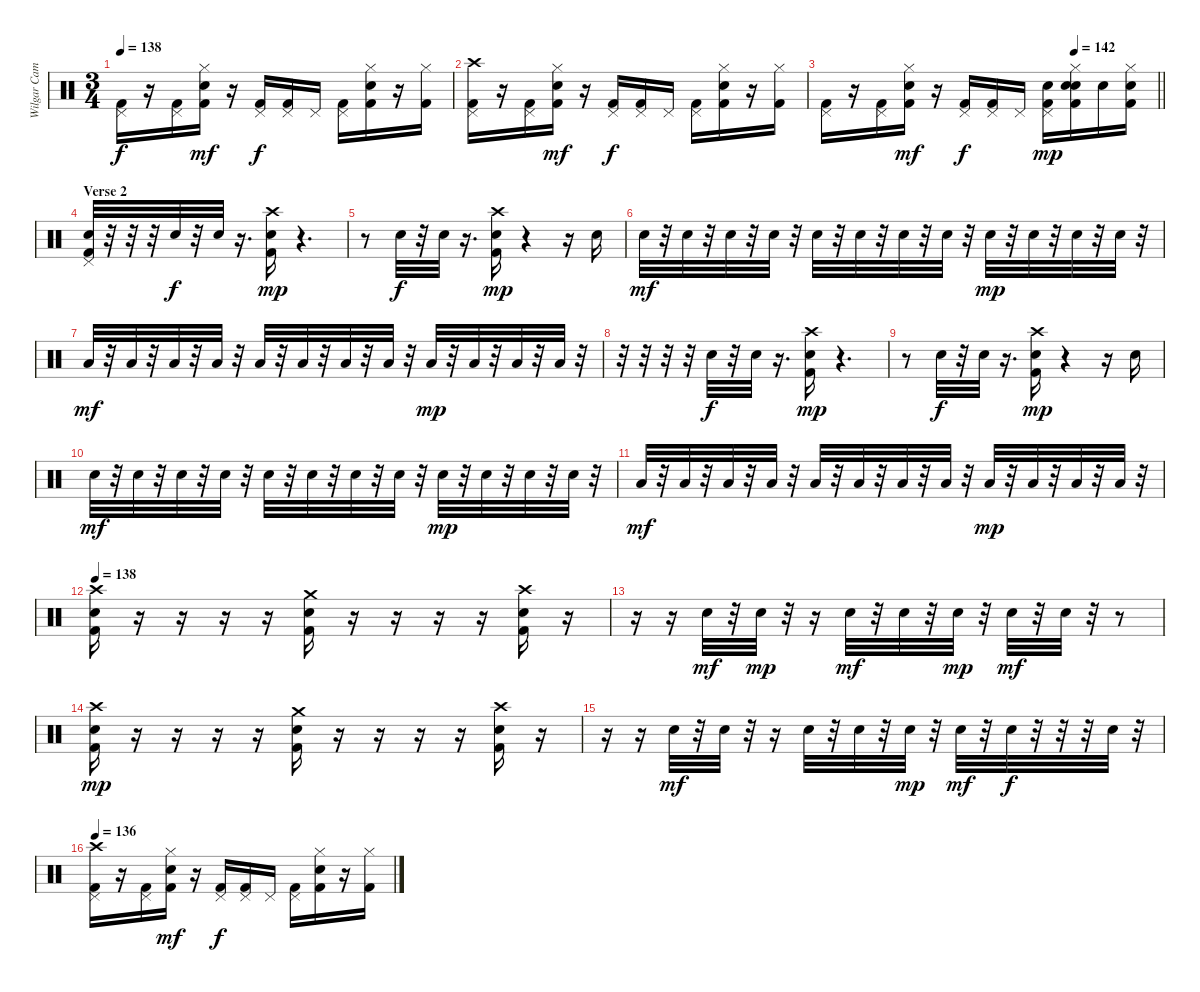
\track ("Wilgar Campbell" "Wilgar Cam") {instrument percussion}
\staff {score}
\articulation defaults
\ts (3 4)
\tempo 138
\clef neutral
\ks c
("Pedal Hi-Hat (hit)" "Kick (hit) 2").16{dy f} r.16 ("Pedal Hi-Hat (hit)" "Kick (hit) 2").16 ("Snare (hit) 2" "Hi-Hat (closed)" "Kick (hit) 2").16{dy mf} r.16 ("Pedal Hi-Hat (hit)" "Kick (hit) 2").16{dy f} ("Pedal Hi-Hat (hit)" "Kick (hit) 2").16 "Pedal Hi-Hat (hit)".16 ("Pedal Hi-Hat (hit)" "Kick (hit) 2").16 ("Snare (hit) 2" "Hi-Hat (closed)" "Kick (hit) 2").16 r.16 ("Hi-Hat (closed)" "Kick (hit) 2").16 |
("Crash high (hit)" "Pedal Hi-Hat (hit)" "Kick (hit) 2").16 r.16 ("Pedal Hi-Hat (hit)" "Kick (hit) 2").16 ("Snare (hit) 2" "Hi-Hat (closed)" "Kick (hit) 2").16{dy mf} r.16 ("Pedal Hi-Hat (hit)" "Kick (hit) 2").16{dy f} ("Pedal Hi-Hat (hit)" "Kick (hit) 2").16 "Pedal Hi-Hat (hit)".16 ("Pedal Hi-Hat (hit)" "Kick (hit) 2").16 ("Snare (hit) 2" "Hi-Hat (closed)" "Kick (hit) 2").16 r.16 ("Hi-Hat (closed)" "Kick (hit) 2").16 |
\tempo (142 0.75)
\barLineRight lightlight
("Pedal Hi-Hat (hit)" "Kick (hit) 2").16 r.16 ("Pedal Hi-Hat (hit)" "Kick (hit) 2").16 ("Snare (hit) 2" "Hi-Hat (closed)" "Kick (hit) 2").16{dy mf} r.16 ("Pedal Hi-Hat (hit)" "Kick (hit) 2").16{dy f} ("Pedal Hi-Hat (hit)" "Kick (hit) 2").16 "Pedal Hi-Hat (hit)".16 ("Pedal Hi-Hat (hit)" "Snare (hit) 2" "Kick (hit) 2").16{dy mp} ("Snare (hit) 2" "Hi-Hat (closed)" "Snare (hit) 2" "Kick (hit) 2").16 "Snare (hit) 2".16 ("Hi-Hat (closed)" "Snare (hit) 2" "Kick (hit) 2").16 |
\section ("" "Verse 2")
("Pedal Hi-Hat (hit)" "Snare (hit) 2" "Kick (hit) 2").32 r.32 r.32 r.32 "Snare (hit) 2".32{dy f} r.32 "Snare (hit) 2".32 r.16{d} ("Crash high (hit)" "Snare (hit) 2" "Kick (hit) 2").16{dy mp} r.4{d} |
r.8 "Snare (hit) 2".32{dy f} r.32 "Snare (hit) 2".32 r.16{d} ("Crash high (hit)" "Snare (hit) 2" "Kick (hit) 2").16{dy mp} r.4 r.16 "Snare (hit) 2".16 |
"Snare (hit) 2".32{dy mf} r.32 "Snare (hit) 2".32 r.32 "Snare (hit) 2".32 r.32 "Snare (hit) 2".32 r.32 "Snare (hit) 2".32 r.32 "Snare (hit) 2".32 r.32 "Snare (hit) 2".32 r.32 "Snare (hit) 2".32 r.32 "Snare (hit) 2".32{dy mp} r.32 "Snare (hit) 2".32 r.32 "Snare (hit) 2".32 r.32 "Snare (hit) 2".32 r.32 |
"Low Tom (hit)".32{dy mf} r.32 "Low Tom (hit)".32 r.32 "Low Tom (hit)".32 r.32 "Low Tom (hit)".32 r.32 "Low Tom (hit)".32 r.32 "Low Tom (hit)".32 r.32 "Low Tom (hit)".32 r.32 "Low Tom (hit)".32 r.32 "Low Tom (hit)".32{dy mp} r.32 "Low Tom (hit)".32 r.32 "Low Tom (hit)".32 r.32 "Low Tom (hit)".32 r.32 |
r.32 r.32 r.32 r.32 "Snare (hit) 2".32{dy f} r.32 "Snare (hit) 2".32 r.16{d} ("Crash high (hit)" "Snare (hit) 2" "Kick (hit) 2").16{dy mp} r.4{d} |
r.8 "Snare (hit) 2".32{dy f} r.32 "Snare (hit) 2".32 r.16{d} ("Crash high (hit)" "Snare (hit) 2" "Kick (hit) 2").16{dy mp} r.4 r.16 "Snare (hit) 2".16 |
"Snare (hit) 2".32{dy mf} r.32 "Snare (hit) 2".32 r.32 "Snare (hit) 2".32 r.32 "Snare (hit) 2".32 r.32 "Snare (hit) 2".32 r.32 "Snare (hit) 2".32 r.32 "Snare (hit) 2".32 r.32 "Snare (hit) 2".32 r.32 "Snare (hit) 2".32{dy mp} r.32 "Snare (hit) 2".32 r.32 "Snare (hit) 2".32 r.32 "Snare (hit) 2".32 r.32 |
"Low Tom (hit)".32{dy mf} r.32 "Low Tom (hit)".32 r.32 "Low Tom (hit)".32 r.32 "Low Tom (hit)".32 r.32 "Low Tom (hit)".32 r.32 "Low Tom (hit)".32 r.32 "Low Tom (hit)".32 r.32 "Low Tom (hit)".32 r.32 "Low Tom (hit)".32{dy mp} r.32 "Low Tom (hit)".32 r.32 "Low Tom (hit)".32 r.32 "Low Tom (hit)".32 r.32 |
\tempo 138
("Crash high (hit)" "Snare (hit) 2" "Kick (hit) 2").16 r.16 r.16 r.16 r.16 ("Crash medium (hit)" "Snare (hit) 2" "Kick (hit) 2").16 r.16 r.16 r.16 r.16 ("Crash high (hit)" "Snare (hit) 2" "Kick (hit) 2").16 r.16 |
r.16 r.16 "Snare (hit) 2".32{dy mf} r.32 "Electric Snare (hit)".32{dy mp} r.32 r.16 "Snare (hit) 2".32{dy mf} r.32 "Snare (hit) 2".32 r.32 "Snare (hit) 2".32{dy mp} r.32 "Snare (hit) 2".32{dy mf} r.32 "Electric Snare (hit)".32 r.32 r.8 |
("Crash high (hit)" "Snare (hit) 2" "Kick (hit) 2").16{dy mp} r.16 r.16 r.16 r.16 ("Crash medium (hit)" "Snare (hit) 2" "Kick (hit) 2").16 r.16 r.16 r.16 r.16 ("Crash high (hit)" "Snare (hit) 2" "Kick (hit) 2").16 r.16 |
r.16 r.16 "Snare (hit) 2".32{dy mf} r.32 "Snare (hit) 2".32 r.32 r.16 "Snare (hit) 2".32 r.32 "Snare (hit) 2".32 r.32 "Snare (hit) 2".32{dy mp} r.32 "Snare (hit) 2".32{dy mf} r.32 "Snare (hit) 2".32{dy f} r.32 r.32 r.32 "Snare (hit) 2".32 r.32 |
\tempo 136
("Crash high (hit)" "Pedal Hi-Hat (hit)" "Kick (hit) 2").16 r.16 ("Pedal Hi-Hat (hit)" "Kick (hit) 2").16 ("Snare (hit) 2" "Hi-Hat (closed)" "Kick (hit) 2").16{dy mf} r.16 ("Pedal Hi-Hat (hit)" "Kick (hit) 2").16{dy f} ("Pedal Hi-Hat (hit)" "Kick (hit) 2").16 "Pedal Hi-Hat (hit)".16 ("Pedal Hi-Hat (hit)" "Kick (hit) 2").16 ("Snare (hit) 2" "Hi-Hat (closed)" "Kick (hit) 2").16 r.16 ("Hi-Hat (closed)" "Kick (hit) 2").16
